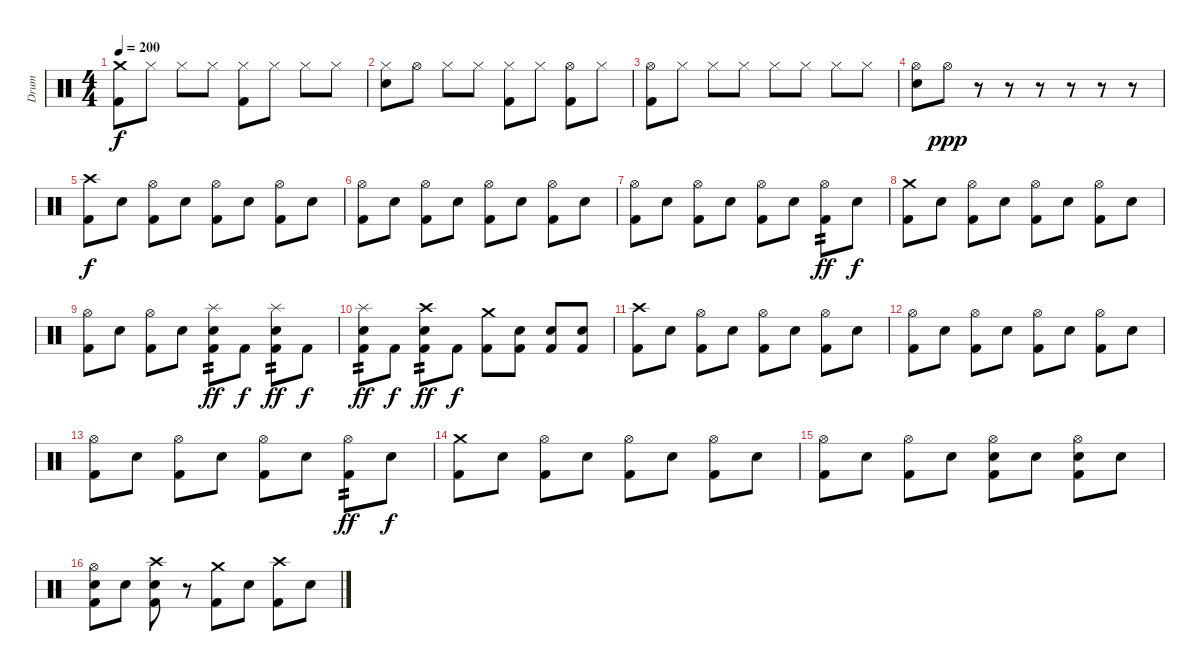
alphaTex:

\track ("Drum" "Drum") {instrument percussion}
\staff {score}
\articulation defaults
\ts (4 4)
\tempo 200
\clef neutral
\ks c
("Crash medium (hit)" "Kick (hit) 2").8{dy f} "Hi-Hat (closed)".8 "Hi-Hat (closed)".8 "Hi-Hat (closed)".8 ("Hi-Hat (closed)" "Kick (hit) 2").8 "Hi-Hat (closed)".8 "Hi-Hat (closed)".8 "Hi-Hat (closed)".8 |
("Hi-Hat (closed)" "Snare (hit) 2").8 "Hi-Hat (open)".8 "Hi-Hat (closed)".8 "Hi-Hat (closed)".8 ("Hi-Hat (closed)" "Kick (hit) 2").8 "Hi-Hat (closed)".8 ("Hi-Hat (open)" "Kick (hit) 2").8 "Hi-Hat (closed)".8 |
("Hi-Hat (open)" "Kick (hit) 2").8 "Hi-Hat (closed)".8 "Hi-Hat (closed)".8 "Hi-Hat (closed)".8 "Hi-Hat (closed)".8 "Hi-Hat (closed)".8 "Hi-Hat (closed)".8 "Hi-Hat (closed)".8 |
("Hi-Hat (open)" "Snare (hit) 2").8 "Hi-Hat (open)".8{dy ppp} r.8 r.8 r.8 r.8 r.8 r.8 |
("Crash high (hit)" "Kick (hit) 2").8{dy f} "Snare (hit) 2".8 ("Hi-Hat (open)" "Kick (hit) 2").8 "Snare (hit) 2".8 ("Hi-Hat (open)" "Kick (hit) 2").8 "Snare (hit) 2".8 ("Hi-Hat (open)" "Kick (hit) 2").8 "Snare (hit) 2".8 |
("Hi-Hat (open)" "Kick (hit) 2").8 "Snare (hit) 2".8 ("Hi-Hat (open)" "Kick (hit) 2").8 "Snare (hit) 2".8 ("Hi-Hat (open)" "Kick (hit) 2").8 "Snare (hit) 2".8 ("Hi-Hat (open)" "Kick (hit) 2").8 "Snare (hit) 2".8 |
("Hi-Hat (open)" "Kick (hit) 2").8 "Snare (hit) 2".8 ("Hi-Hat (open)" "Kick (hit) 2").8 "Snare (hit) 2".8 ("Hi-Hat (open)" "Kick (hit) 2").8 "Snare (hit) 2".8 ("Hi-Hat (open)" "Kick (hit) 2").8{tp 2 dy ff} "Snare (hit) 2".8{dy f} |
("Crash medium (hit)" "Kick (hit) 2").8 "Snare (hit) 2".8 ("Hi-Hat (open)" "Kick (hit) 2").8 "Snare (hit) 2".8 ("Hi-Hat (open)" "Kick (hit) 2").8 "Snare (hit) 2".8 ("Hi-Hat (open)" "Kick (hit) 2").8 "Snare (hit) 2".8 |
("Hi-Hat (open)" "Kick (hit) 2").8 "Snare (hit) 2".8 ("Hi-Hat (open)" "Kick (hit) 2").8 "Snare (hit) 2".8 ("Splash (hit)" "Snare (hit) 2" "Kick (hit) 2").8{tp 2 dy ff} "Kick (hit) 2".8{dy f} ("Splash (hit)" "Snare (hit) 2" "Kick (hit) 2").8{tp 2 dy ff} "Kick (hit) 2".8{dy f} |
("Splash (hit)" "Snare (hit) 2" "Kick (hit) 2").8{tp 2 dy ff} "Kick (hit) 2".8{dy f} ("Crash high (hit)" "Snare (hit) 2" "Kick (hit) 2").8{tp 2 dy ff} "Kick (hit) 2".8{dy f} ("Crash medium (hit)" "Kick (hit) 2").8 ("Snare (hit) 2" "Kick (hit) 2").8 ("Snare (hit) 2" "Kick (hit) 2").8 ("Snare (hit) 2" "Kick (hit) 2").8 |
("Crash high (hit)" "Kick (hit) 2").8 "Snare (hit) 2".8 ("Hi-Hat (open)" "Kick (hit) 2").8 "Snare (hit) 2".8 ("Hi-Hat (open)" "Kick (hit) 2").8 "Snare (hit) 2".8 ("Hi-Hat (open)" "Kick (hit) 2").8 "Snare (hit) 2".8 |
("Hi-Hat (open)" "Kick (hit) 2").8 "Snare (hit) 2".8 ("Hi-Hat (open)" "Kick (hit) 2").8 "Snare (hit) 2".8 ("Hi-Hat (open)" "Kick (hit) 2").8 "Snare (hit) 2".8 ("Hi-Hat (open)" "Kick (hit) 2").8 "Snare (hit) 2".8 |
("Hi-Hat (open)" "Kick (hit) 2").8 "Snare (hit) 2".8 ("Hi-Hat (open)" "Kick (hit) 2").8 "Snare (hit) 2".8 ("Hi-Hat (open)" "Kick (hit) 2").8 "Snare (hit) 2".8 ("Hi-Hat (open)" "Kick (hit) 2").8{tp 2 dy ff} "Snare (hit) 2".8{dy f} |
("Crash medium (hit)" "Kick (hit) 2").8 "Snare (hit) 2".8 ("Hi-Hat (open)" "Kick (hit) 2").8 "Snare (hit) 2".8 ("Hi-Hat (open)" "Kick (hit) 2").8 "Snare (hit) 2".8 ("Hi-Hat (open)" "Kick (hit) 2").8 "Snare (hit) 2".8 |
("Hi-Hat (open)" "Kick (hit) 2").8 "Snare (hit) 2".8 ("Hi-Hat (open)" "Kick (hit) 2").8 "Snare (hit) 2".8 ("Hi-Hat (open)" "Snare (hit) 2" "Kick (hit) 2").8 "Snare (hit) 2".8 ("Hi-Hat (open)" "Snare (hit) 2" "Kick (hit) 2").8 "Snare (hit) 2".8 |
("Hi-Hat (open)" "Snare (hit) 2" "Kick (hit) 2").8 "Snare (hit) 2".8 ("Crash high (hit)" "Snare (hit) 2" "Kick (hit) 2").8 r.8 ("Crash medium (hit)" "Kick (hit) 2").8 "Snare (hit) 2".8 ("Crash high (hit)" "Kick (hit) 2").8 "Snare (hit) 2".8
